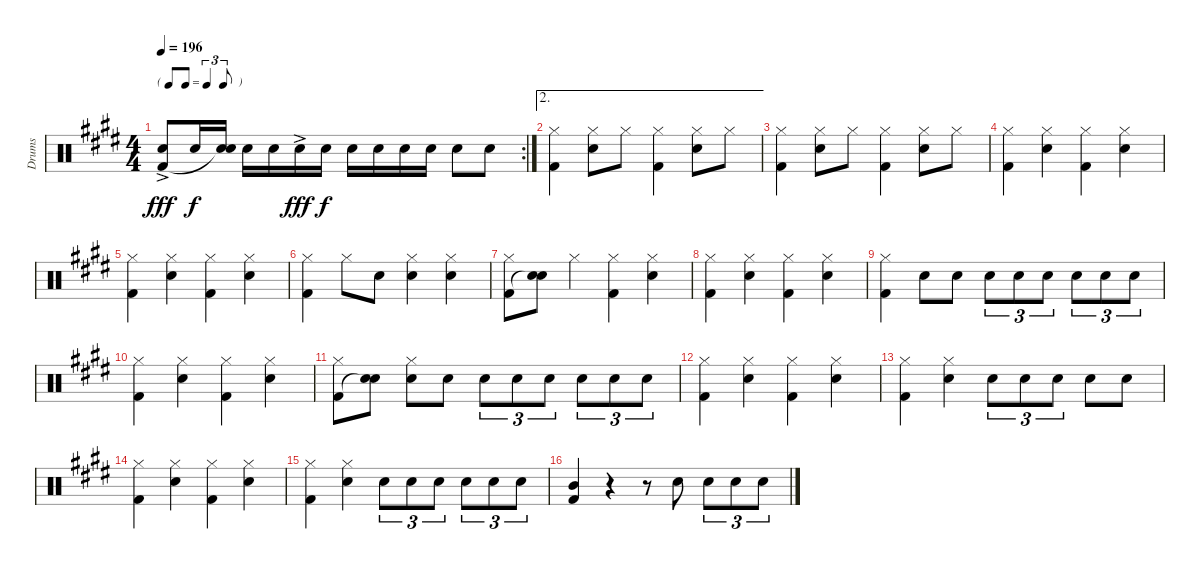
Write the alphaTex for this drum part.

\track ("Drums" "Drums") {instrument percussion}
\staff {score}
\articulation defaults
\rc 2
\ts (4 4)
\tf triplet8th
\tempo 196
\clef neutral
\ks e
("Snare (hit) 2"{ac} "Kick (hit) 2").8{dy fff} "Snare (hit) 2".16{dy f} ("Snare (hit) 2" "Snare (hit)"{t}).16 "Snare (hit) 2".16 "Snare (hit) 2".16 "Snare (hit) 2"{ac}.16{dy fff} "Snare (hit) 2".16{dy f} "Snare (hit) 2".16 "Snare (hit) 2".16 "Snare (hit) 2".16 "Snare (hit) 2".16 "Snare (hit) 2".8 "Snare (hit) 2".8 |
\ae 2
("Hi-Hat (closed)" "Kick (hit) 2").4 ("Hi-Hat (closed)" "Snare (hit) 2").8 "Hi-Hat (closed)".8 ("Hi-Hat (closed)" "Kick (hit) 2").4 ("Hi-Hat (closed)" "Snare (hit) 2").8 "Hi-Hat (closed)".8 |
("Hi-Hat (closed)" "Kick (hit) 2").4 ("Hi-Hat (closed)" "Snare (hit) 2").8 "Hi-Hat (closed)".8 ("Hi-Hat (closed)" "Kick (hit) 2").4 ("Hi-Hat (closed)" "Snare (hit) 2").8 "Hi-Hat (closed)".8 |
("Hi-Hat (closed)" "Kick (hit) 2").4 ("Hi-Hat (closed)" "Snare (hit) 2").4 ("Hi-Hat (closed)" "Kick (hit) 2").4 ("Hi-Hat (closed)" "Snare (hit) 2").4 |
("Hi-Hat (closed)" "Kick (hit) 2").4 ("Hi-Hat (closed)" "Snare (hit) 2").4 ("Hi-Hat (closed)" "Kick (hit) 2").4 ("Hi-Hat (closed)" "Snare (hit) 2").4 |
("Hi-Hat (closed)" "Kick (hit) 2").4 "Hi-Hat (closed)".8 "Snare (hit) 2".8 ("Hi-Hat (closed)" "Snare (hit) 2").4 ("Hi-Hat (closed)" "Snare (hit) 2").4 |
("Hi-Hat (closed)" "Kick (hit) 2").8 ("Snare (hit) 2" "Snare (hit)"{t}).8 "Hi-Hat (closed)".4 ("Hi-Hat (closed)" "Kick (hit) 2").4 ("Hi-Hat (closed)" "Snare (hit) 2").4 |
("Hi-Hat (closed)" "Kick (hit) 2").4 ("Hi-Hat (closed)" "Snare (hit) 2").4 ("Hi-Hat (closed)" "Kick (hit) 2").4 ("Hi-Hat (closed)" "Snare (hit) 2").4 |
("Hi-Hat (closed)" "Kick (hit) 2").4 "Snare (hit) 2".8 "Snare (hit) 2".8 "Snare (hit) 2".8{tu (3 2)} "Snare (hit) 2".8{tu (3 2)} "Snare (hit) 2".8{tu (3 2)} "Snare (hit) 2".8{tu (3 2)} "Snare (hit) 2".8{tu (3 2)} "Snare (hit) 2".8{tu (3 2)} |
("Hi-Hat (closed)" "Kick (hit) 2").4 ("Hi-Hat (closed)" "Snare (hit) 2").4 ("Hi-Hat (closed)" "Kick (hit) 2").4 ("Hi-Hat (closed)" "Snare (hit) 2").4 |
("Hi-Hat (closed)" "Kick (hit) 2").8 ("Snare (hit) 2" "Snare (hit)"{t}).8 ("Hi-Hat (closed)" "Snare (hit) 2").8 "Snare (hit) 2".8 "Snare (hit) 2".8{tu (3 2)} "Snare (hit) 2".8{tu (3 2)} "Snare (hit) 2".8{tu (3 2)} "Snare (hit) 2".8{tu (3 2)} "Snare (hit) 2".8{tu (3 2)} "Snare (hit) 2".8{tu (3 2)} |
("Hi-Hat (closed)" "Kick (hit) 2").4 ("Hi-Hat (closed)" "Snare (hit) 2").4 ("Hi-Hat (closed)" "Kick (hit) 2").4 ("Hi-Hat (closed)" "Snare (hit) 2").4 |
("Hi-Hat (closed)" "Kick (hit) 2").4 ("Hi-Hat (closed)" "Snare (hit) 2").4 "Snare (hit) 2".8{tu (3 2)} "Snare (hit) 2".8{tu (3 2)} "Snare (hit) 2".8{tu (3 2)} "Snare (hit) 2".8 "Snare (hit) 2".8 |
("Hi-Hat (closed)" "Kick (hit) 2").4 ("Hi-Hat (closed)" "Snare (hit) 2").4 ("Hi-Hat (closed)" "Kick (hit) 2").4 ("Hi-Hat (closed)" "Snare (hit) 2").4 |
("Hi-Hat (closed)" "Kick (hit) 2").4 ("Hi-Hat (closed)" "Snare (hit) 2").4 "Snare (hit) 2".8{tu (3 2)} "Snare (hit) 2".8{tu (3 2)} "Snare (hit) 2".8{tu (3 2)} "Snare (hit) 2".8{tu (3 2)} "Snare (hit) 2".8{tu (3 2)} "Snare (hit) 2".8{tu (3 2)} |
("Mid Tom (hit)" "Kick (hit) 2").4 r.4 r.8 "Snare (hit) 2".8 "Snare (hit) 2".8{tu (3 2)} "Snare (hit) 2".8{tu (3 2)} "Snare (hit) 2".8{tu (3 2)}
